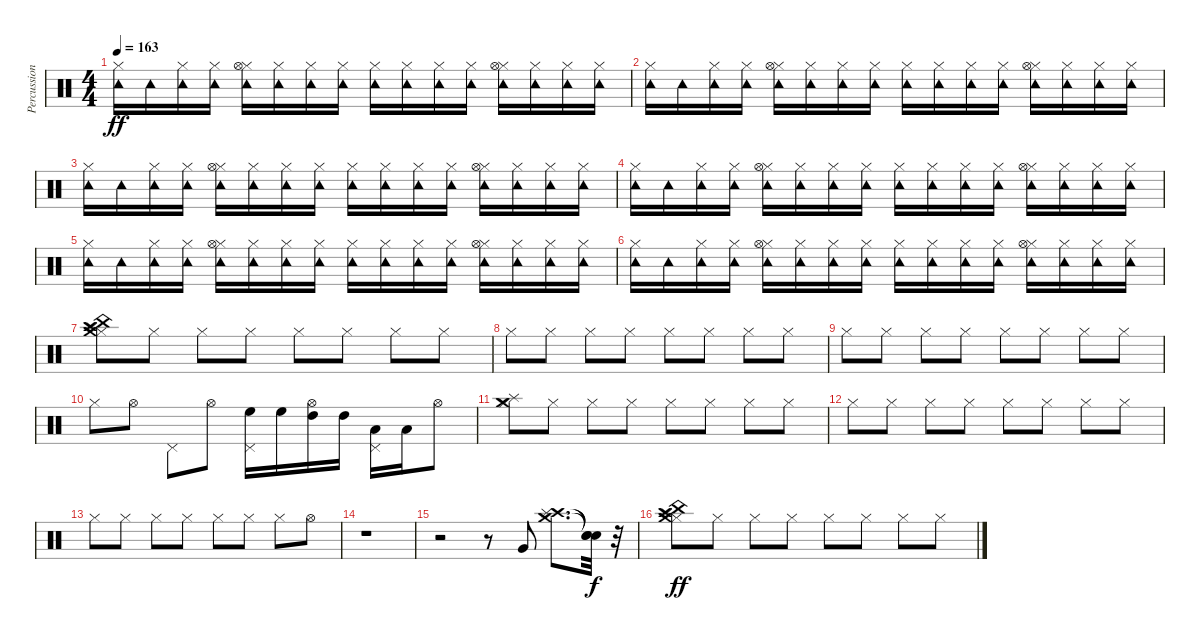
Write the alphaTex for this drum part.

\track ("Percussion (Standard Kit)" "Percussion") {instrument percussion}
\staff {score}
\articulation defaults
\ts (4 4)
\tempo 163
\clef neutral
\ks c
("Hi-Hat (closed)" "Tambourine (hit)").16{dy ff} "Tambourine (hit)".16 ("Hi-Hat (closed)" "Tambourine (hit)").16 ("Hi-Hat (closed)" "Tambourine (hit)").16 ("Hi-Hat (closed)" "Hi-Hat (open)" "Tambourine (hit)").16 ("Hi-Hat (closed)" "Tambourine (hit)").16 ("Hi-Hat (closed)" "Tambourine (hit)").16 ("Hi-Hat (closed)" "Tambourine (hit)").16 ("Hi-Hat (closed)" "Tambourine (hit)").16 ("Hi-Hat (closed)" "Tambourine (hit)").16 ("Hi-Hat (closed)" "Tambourine (hit)").16 ("Hi-Hat (closed)" "Tambourine (hit)").16 ("Hi-Hat (closed)" "Hi-Hat (open)" "Tambourine (hit)").16 ("Hi-Hat (closed)" "Tambourine (hit)").16 ("Hi-Hat (closed)" "Tambourine (hit)").16 ("Hi-Hat (closed)" "Tambourine (hit)").16 |
("Hi-Hat (closed)" "Tambourine (hit)").16 "Tambourine (hit)".16 ("Hi-Hat (closed)" "Tambourine (hit)").16 ("Hi-Hat (closed)" "Tambourine (hit)").16 ("Hi-Hat (closed)" "Hi-Hat (open)" "Tambourine (hit)").16 ("Hi-Hat (closed)" "Tambourine (hit)").16 ("Hi-Hat (closed)" "Tambourine (hit)").16 ("Hi-Hat (closed)" "Tambourine (hit)").16 ("Hi-Hat (closed)" "Tambourine (hit)").16 ("Hi-Hat (closed)" "Tambourine (hit)").16 ("Hi-Hat (closed)" "Tambourine (hit)").16 ("Hi-Hat (closed)" "Tambourine (hit)").16 ("Hi-Hat (closed)" "Hi-Hat (open)" "Tambourine (hit)").16 ("Hi-Hat (closed)" "Tambourine (hit)").16 ("Hi-Hat (closed)" "Tambourine (hit)").16 ("Hi-Hat (closed)" "Tambourine (hit)").16 |
("Hi-Hat (closed)" "Tambourine (hit)").16 "Tambourine (hit)".16 ("Hi-Hat (closed)" "Tambourine (hit)").16 ("Hi-Hat (closed)" "Tambourine (hit)").16 ("Hi-Hat (closed)" "Hi-Hat (open)" "Tambourine (hit)").16 ("Hi-Hat (closed)" "Tambourine (hit)").16 ("Hi-Hat (closed)" "Tambourine (hit)").16 ("Hi-Hat (closed)" "Tambourine (hit)").16 ("Hi-Hat (closed)" "Tambourine (hit)").16 ("Hi-Hat (closed)" "Tambourine (hit)").16 ("Hi-Hat (closed)" "Tambourine (hit)").16 ("Hi-Hat (closed)" "Tambourine (hit)").16 ("Hi-Hat (closed)" "Hi-Hat (open)" "Tambourine (hit)").16 ("Hi-Hat (closed)" "Tambourine (hit)").16 ("Hi-Hat (closed)" "Tambourine (hit)").16 ("Hi-Hat (closed)" "Tambourine (hit)").16 |
("Hi-Hat (closed)" "Tambourine (hit)").16 "Tambourine (hit)".16 ("Hi-Hat (closed)" "Tambourine (hit)").16 ("Hi-Hat (closed)" "Tambourine (hit)").16 ("Hi-Hat (closed)" "Hi-Hat (open)" "Tambourine (hit)").16 ("Hi-Hat (closed)" "Tambourine (hit)").16 ("Hi-Hat (closed)" "Tambourine (hit)").16 ("Hi-Hat (closed)" "Tambourine (hit)").16 ("Hi-Hat (closed)" "Tambourine (hit)").16 ("Hi-Hat (closed)" "Tambourine (hit)").16 ("Hi-Hat (closed)" "Tambourine (hit)").16 ("Hi-Hat (closed)" "Tambourine (hit)").16 ("Hi-Hat (closed)" "Hi-Hat (open)" "Tambourine (hit)").16 ("Hi-Hat (closed)" "Tambourine (hit)").16 ("Hi-Hat (closed)" "Tambourine (hit)").16 ("Hi-Hat (closed)" "Tambourine (hit)").16 |
("Hi-Hat (closed)" "Tambourine (hit)").16 "Tambourine (hit)".16 ("Hi-Hat (closed)" "Tambourine (hit)").16 ("Hi-Hat (closed)" "Tambourine (hit)").16 ("Hi-Hat (closed)" "Hi-Hat (open)" "Tambourine (hit)").16 ("Hi-Hat (closed)" "Tambourine (hit)").16 ("Hi-Hat (closed)" "Tambourine (hit)").16 ("Hi-Hat (closed)" "Tambourine (hit)").16 ("Hi-Hat (closed)" "Tambourine (hit)").16 ("Hi-Hat (closed)" "Tambourine (hit)").16 ("Hi-Hat (closed)" "Tambourine (hit)").16 ("Hi-Hat (closed)" "Tambourine (hit)").16 ("Hi-Hat (closed)" "Hi-Hat (open)" "Tambourine (hit)").16 ("Hi-Hat (closed)" "Tambourine (hit)").16 ("Hi-Hat (closed)" "Tambourine (hit)").16 ("Hi-Hat (closed)" "Tambourine (hit)").16 |
("Hi-Hat (closed)" "Tambourine (hit)").16 "Tambourine (hit)".16 ("Hi-Hat (closed)" "Tambourine (hit)").16 ("Hi-Hat (closed)" "Tambourine (hit)").16 ("Hi-Hat (closed)" "Hi-Hat (open)" "Tambourine (hit)").16 ("Hi-Hat (closed)" "Tambourine (hit)").16 ("Hi-Hat (closed)" "Tambourine (hit)").16 ("Hi-Hat (closed)" "Tambourine (hit)").16 ("Hi-Hat (closed)" "Tambourine (hit)").16 ("Hi-Hat (closed)" "Tambourine (hit)").16 ("Hi-Hat (closed)" "Tambourine (hit)").16 ("Hi-Hat (closed)" "Tambourine (hit)").16 ("Hi-Hat (closed)" "Hi-Hat (open)" "Tambourine (hit)").16 ("Hi-Hat (closed)" "Tambourine (hit)").16 ("Hi-Hat (closed)" "Tambourine (hit)").16 ("Hi-Hat (closed)" "Tambourine (hit)").16 |
("Hi-Hat (closed)" "Crash high (hit)" "China (hit)" "Splash (hit)" "Crash medium (hit)").8 "Hi-Hat (closed)".8 "Hi-Hat (closed)".8 "Hi-Hat (closed)".8 "Hi-Hat (closed)".8 "Hi-Hat (closed)".8 "Hi-Hat (closed)".8 "Hi-Hat (closed)".8 |
"Hi-Hat (closed)".8 "Hi-Hat (closed)".8 "Hi-Hat (closed)".8 "Hi-Hat (closed)".8 "Hi-Hat (closed)".8 "Hi-Hat (closed)".8 "Hi-Hat (closed)".8 "Hi-Hat (closed)".8 |
"Hi-Hat (closed)".8 "Hi-Hat (closed)".8 "Hi-Hat (closed)".8 "Hi-Hat (closed)".8 "Hi-Hat (closed)".8 "Hi-Hat (closed)".8 "Hi-Hat (closed)".8 "Hi-Hat (closed)".8 |
"Hi-Hat (closed)".8 "Hi-Hat (open)".8 "Pedal Hi-Hat (hit)".8 "Hi-Hat (open)".8 ("Pedal Hi-Hat (hit)" "High Floor Tom (hit)").16 "High Floor Tom (hit)".16 ("Hi-Hat (open)" "High Tom (hit)").16 "High Tom (hit)".16 ("Pedal Hi-Hat (hit)" "Low Tom (hit)").16 "Low Tom (hit)".16 "Hi-Hat (open)".8 |
("Hi-Hat (closed)" "Splash (hit)" "Crash medium (hit)").8 "Hi-Hat (closed)".8 "Hi-Hat (closed)".8 "Hi-Hat (closed)".8 "Hi-Hat (closed)".8 "Hi-Hat (closed)".8 "Hi-Hat (closed)".8 "Hi-Hat (closed)".8 |
"Hi-Hat (closed)".8 "Hi-Hat (closed)".8 "Hi-Hat (closed)".8 "Hi-Hat (closed)".8 "Hi-Hat (closed)".8 "Hi-Hat (closed)".8 "Hi-Hat (closed)".8 "Hi-Hat (closed)".8 |
"Hi-Hat (closed)".8 "Hi-Hat (closed)".8 "Hi-Hat (closed)".8 "Hi-Hat (closed)".8 "Hi-Hat (closed)".8 "Hi-Hat (closed)".8 "Hi-Hat (closed)".8 "Hi-Hat (open)".8 |
r.1 |
r.2 r.8 "Very Low Tom (hit)".8 ("Crash high (hit)" "Splash (hit)" "Crash medium (hit)").8{d} ("Snare (hit)"{t} "Snare (hit)"{t} "Snare (hit)"{t}).32{dy f} r.32 |
("Hi-Hat (closed)" "Crash high (hit)" "China (hit)" "Splash (hit)" "Crash medium (hit)").8{dy ff} "Hi-Hat (closed)".8 "Hi-Hat (closed)".8 "Hi-Hat (closed)".8 "Hi-Hat (closed)".8 "Hi-Hat (closed)".8 "Hi-Hat (closed)".8 "Hi-Hat (closed)".8
